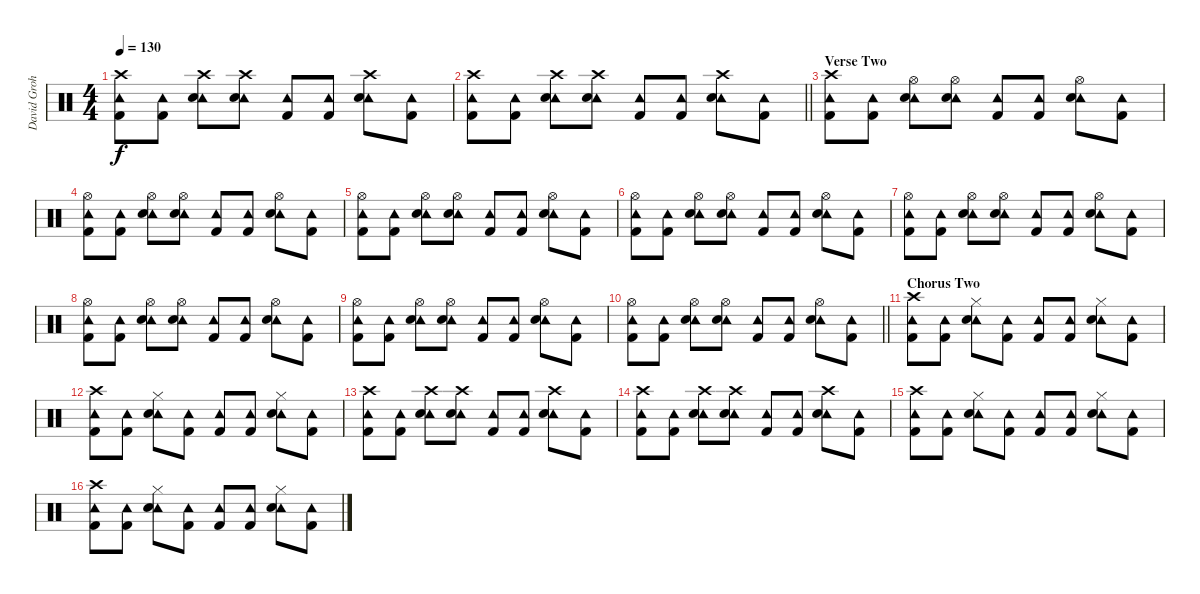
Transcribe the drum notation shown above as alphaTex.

\track ("David Grohl" "David Groh") {instrument percussion}
\staff {score}
\articulation defaults
\ts (4 4)
\tempo 130
\clef neutral
\ks c
("Crash high (hit)" "Tambourine (hit)" "Kick (hit) 2").8{dy f} ("Tambourine (hit)" "Kick (hit) 2").8 ("Crash high (hit)" "Tambourine (hit)" "Snare (hit) 2").8 ("Crash high (hit)" "Tambourine (hit)" "Snare (hit) 2").8 ("Tambourine (hit)" "Kick (hit) 2").8 ("Tambourine (hit)" "Kick (hit) 2").8 ("Crash high (hit)" "Tambourine (hit)" "Snare (hit) 2").8 ("Tambourine (hit)" "Kick (hit) 2").8 |
\barLineRight lightlight
("Crash high (hit)" "Tambourine (hit)" "Kick (hit) 2").8 ("Tambourine (hit)" "Kick (hit) 2").8 ("Crash high (hit)" "Tambourine (hit)" "Snare (hit) 2").8 ("Crash high (hit)" "Tambourine (hit)" "Snare (hit) 2").8 ("Tambourine (hit)" "Kick (hit) 2").8 ("Tambourine (hit)" "Kick (hit) 2").8 ("Crash high (hit)" "Tambourine (hit)" "Snare (hit) 2").8 ("Tambourine (hit)" "Kick (hit) 2").8 |
\section ("" "Verse Two")
("Crash high (hit)" "Tambourine (hit)" "Kick (hit) 2").8 ("Tambourine (hit)" "Kick (hit) 2").8 ("Tambourine (hit)" "Hi-Hat (open)" "Snare (hit) 2").8 ("Tambourine (hit)" "Hi-Hat (open)" "Snare (hit) 2").8 ("Tambourine (hit)" "Kick (hit) 2").8 ("Tambourine (hit)" "Kick (hit) 2").8 ("Tambourine (hit)" "Hi-Hat (open)" "Snare (hit) 2").8 ("Tambourine (hit)" "Kick (hit) 2").8 |
("Tambourine (hit)" "Hi-Hat (open)" "Kick (hit) 2").8 ("Tambourine (hit)" "Kick (hit) 2").8 ("Tambourine (hit)" "Hi-Hat (open)" "Snare (hit) 2").8 ("Tambourine (hit)" "Hi-Hat (open)" "Snare (hit) 2").8 ("Tambourine (hit)" "Kick (hit) 2").8 ("Tambourine (hit)" "Kick (hit) 2").8 ("Tambourine (hit)" "Hi-Hat (open)" "Snare (hit) 2").8 ("Tambourine (hit)" "Kick (hit) 2").8 |
("Tambourine (hit)" "Hi-Hat (open)" "Kick (hit) 2").8 ("Tambourine (hit)" "Kick (hit) 2").8 ("Tambourine (hit)" "Hi-Hat (open)" "Snare (hit) 2").8 ("Tambourine (hit)" "Hi-Hat (open)" "Snare (hit) 2").8 ("Tambourine (hit)" "Kick (hit) 2").8 ("Tambourine (hit)" "Kick (hit) 2").8 ("Tambourine (hit)" "Hi-Hat (open)" "Snare (hit) 2").8 ("Tambourine (hit)" "Kick (hit) 2").8 |
("Tambourine (hit)" "Hi-Hat (open)" "Kick (hit) 2").8 ("Tambourine (hit)" "Kick (hit) 2").8 ("Tambourine (hit)" "Hi-Hat (open)" "Snare (hit) 2").8 ("Tambourine (hit)" "Hi-Hat (open)" "Snare (hit) 2").8 ("Tambourine (hit)" "Kick (hit) 2").8 ("Tambourine (hit)" "Kick (hit) 2").8 ("Tambourine (hit)" "Hi-Hat (open)" "Snare (hit) 2").8 ("Tambourine (hit)" "Kick (hit) 2").8 |
("Tambourine (hit)" "Hi-Hat (open)" "Kick (hit) 2").8 ("Tambourine (hit)" "Kick (hit) 2").8 ("Tambourine (hit)" "Hi-Hat (open)" "Snare (hit) 2").8 ("Tambourine (hit)" "Hi-Hat (open)" "Snare (hit) 2").8 ("Tambourine (hit)" "Kick (hit) 2").8 ("Tambourine (hit)" "Kick (hit) 2").8 ("Tambourine (hit)" "Hi-Hat (open)" "Snare (hit) 2").8 ("Tambourine (hit)" "Kick (hit) 2").8 |
("Tambourine (hit)" "Hi-Hat (open)" "Kick (hit) 2").8 ("Tambourine (hit)" "Kick (hit) 2").8 ("Tambourine (hit)" "Hi-Hat (open)" "Snare (hit) 2").8 ("Tambourine (hit)" "Hi-Hat (open)" "Snare (hit) 2").8 ("Tambourine (hit)" "Kick (hit) 2").8 ("Tambourine (hit)" "Kick (hit) 2").8 ("Tambourine (hit)" "Hi-Hat (open)" "Snare (hit) 2").8 ("Tambourine (hit)" "Kick (hit) 2").8 |
("Tambourine (hit)" "Hi-Hat (open)" "Kick (hit) 2").8 ("Tambourine (hit)" "Kick (hit) 2").8 ("Tambourine (hit)" "Hi-Hat (open)" "Snare (hit) 2").8 ("Tambourine (hit)" "Hi-Hat (open)" "Snare (hit) 2").8 ("Tambourine (hit)" "Kick (hit) 2").8 ("Tambourine (hit)" "Kick (hit) 2").8 ("Tambourine (hit)" "Hi-Hat (open)" "Snare (hit) 2").8 ("Tambourine (hit)" "Kick (hit) 2").8 |
\barLineRight lightlight
("Tambourine (hit)" "Hi-Hat (open)" "Kick (hit) 2").8 ("Tambourine (hit)" "Kick (hit) 2").8 ("Tambourine (hit)" "Hi-Hat (open)" "Snare (hit) 2").8 ("Tambourine (hit)" "Hi-Hat (open)" "Snare (hit) 2").8 ("Tambourine (hit)" "Kick (hit) 2").8 ("Tambourine (hit)" "Kick (hit) 2").8 ("Tambourine (hit)" "Hi-Hat (open)" "Snare (hit) 2").8 ("Tambourine (hit)" "Kick (hit) 2").8 |
\section ("" "Chorus Two")
("Crash high (hit)" "Tambourine (hit)" "Kick (hit) 2").8 ("Tambourine (hit)" "Kick (hit) 2").8 ("Tambourine (hit)" "Hi-Hat (closed)" "Snare (hit) 2").8 ("Tambourine (hit)" "Kick (hit) 2").8 ("Tambourine (hit)" "Kick (hit) 2").8 ("Tambourine (hit)" "Kick (hit) 2").8 ("Tambourine (hit)" "Hi-Hat (closed)" "Snare (hit) 2").8 ("Tambourine (hit)" "Kick (hit) 2").8 |
("Crash high (hit)" "Tambourine (hit)" "Kick (hit) 2").8 ("Tambourine (hit)" "Kick (hit) 2").8 ("Tambourine (hit)" "Hi-Hat (closed)" "Snare (hit) 2").8 ("Tambourine (hit)" "Kick (hit) 2").8 ("Tambourine (hit)" "Kick (hit) 2").8 ("Tambourine (hit)" "Kick (hit) 2").8 ("Tambourine (hit)" "Hi-Hat (closed)" "Snare (hit) 2").8 ("Tambourine (hit)" "Kick (hit) 2").8 |
("Crash high (hit)" "Tambourine (hit)" "Kick (hit) 2").8 ("Tambourine (hit)" "Kick (hit) 2").8 ("Crash high (hit)" "Tambourine (hit)" "Snare (hit) 2").8 ("Crash high (hit)" "Tambourine (hit)" "Snare (hit) 2").8 ("Tambourine (hit)" "Kick (hit) 2").8 ("Tambourine (hit)" "Kick (hit) 2").8 ("Crash high (hit)" "Tambourine (hit)" "Snare (hit) 2").8 ("Tambourine (hit)" "Kick (hit) 2").8 |
("Crash high (hit)" "Tambourine (hit)" "Kick (hit) 2").8 ("Tambourine (hit)" "Kick (hit) 2").8 ("Crash high (hit)" "Tambourine (hit)" "Snare (hit) 2").8 ("Crash high (hit)" "Tambourine (hit)" "Snare (hit) 2").8 ("Tambourine (hit)" "Kick (hit) 2").8 ("Tambourine (hit)" "Kick (hit) 2").8 ("Crash high (hit)" "Tambourine (hit)" "Snare (hit) 2").8 ("Tambourine (hit)" "Kick (hit) 2").8 |
("Crash high (hit)" "Tambourine (hit)" "Kick (hit) 2").8 ("Tambourine (hit)" "Kick (hit) 2").8 ("Tambourine (hit)" "Hi-Hat (closed)" "Snare (hit) 2").8 ("Tambourine (hit)" "Kick (hit) 2").8 ("Tambourine (hit)" "Kick (hit) 2").8 ("Tambourine (hit)" "Kick (hit) 2").8 ("Tambourine (hit)" "Hi-Hat (closed)" "Snare (hit) 2").8 ("Tambourine (hit)" "Kick (hit) 2").8 |
("Crash high (hit)" "Tambourine (hit)" "Kick (hit) 2").8 ("Tambourine (hit)" "Kick (hit) 2").8 ("Tambourine (hit)" "Hi-Hat (closed)" "Snare (hit) 2").8 ("Tambourine (hit)" "Kick (hit) 2").8 ("Tambourine (hit)" "Kick (hit) 2").8 ("Tambourine (hit)" "Kick (hit) 2").8 ("Tambourine (hit)" "Hi-Hat (closed)" "Snare (hit) 2").8 ("Tambourine (hit)" "Kick (hit) 2").8
